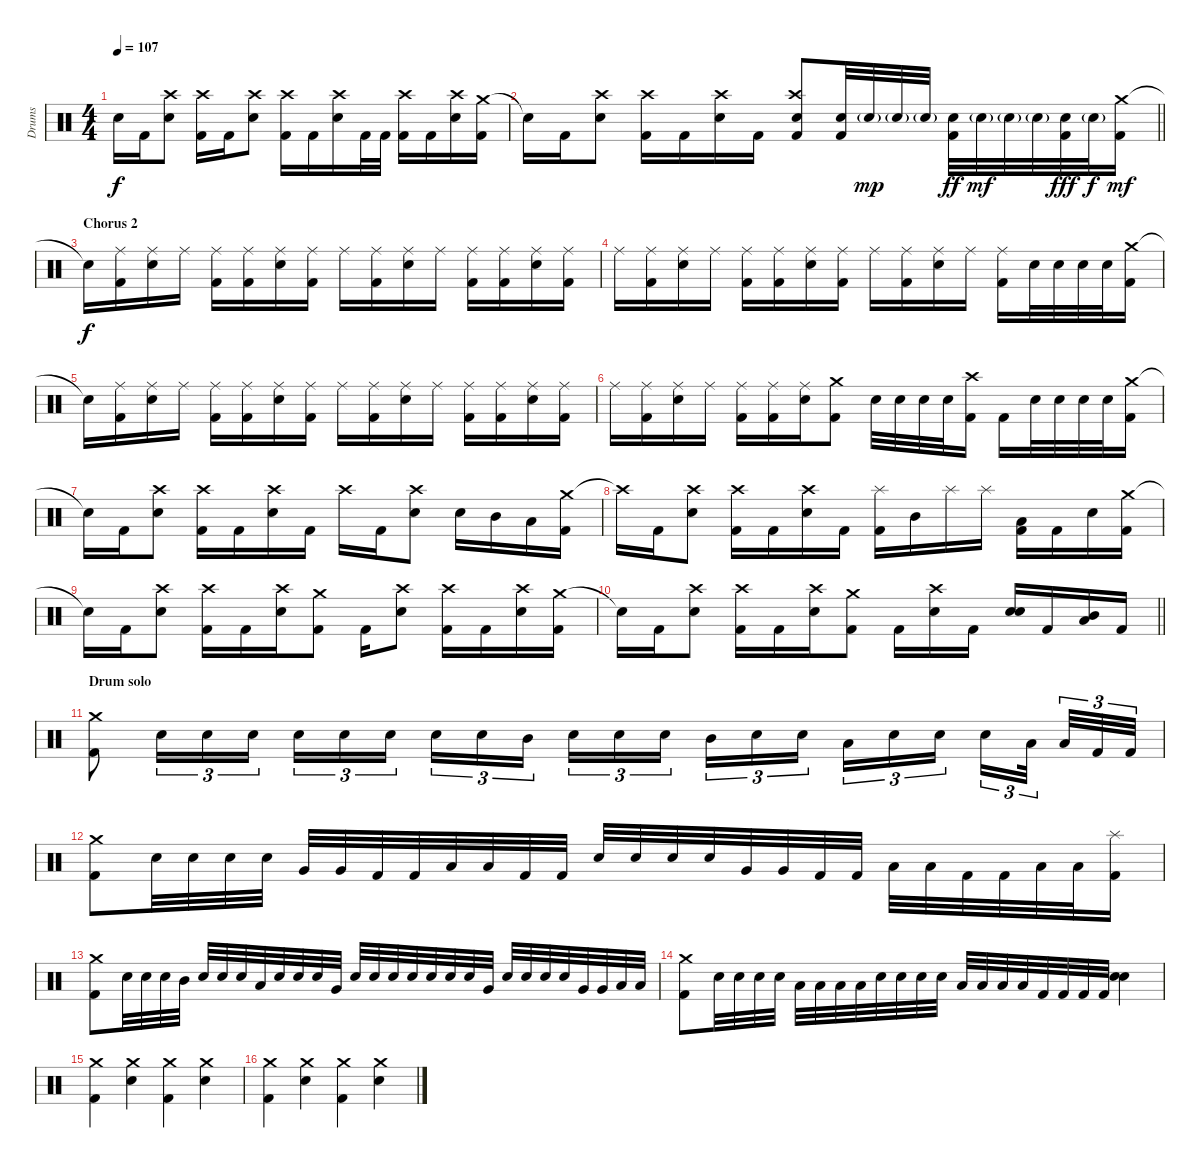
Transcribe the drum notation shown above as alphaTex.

\track ("Drums" "Drums") {instrument percussion}
\staff {score}
\articulation defaults
\ts (4 4)
\tempo 107
\clef neutral
\ks c "Snare (hit)"{t}.16{dy f} "Kick (hit) 2".16
("Crash high (hit)" "Electric Snare (hit)").8 ("Crash high (hit)" "Kick (hit) 2").16 "Kick (hit) 2".16 ("Crash high (hit)" "Electric Snare (hit)").8 ("Crash high (hit)" "Kick (hit) 2").16 "Kick (hit) 2".16 ("Crash high (hit)" "Electric Snare (hit)").16 "Kick (hit) 2".32 "Kick (hit) 2".32 ("Crash high (hit)" "Kick (hit) 2").16 "Kick (hit) 2".16 ("Crash high (hit)" "Electric Snare (hit)").16 ("Crash medium (hit)" "Kick (hit) 2").16 |
\barLineRight lightlight "Snare (hit)"{t}.16 "Kick (hit) 2".16
("Crash high (hit)" "Electric Snare (hit)").8 ("Crash high (hit)" "Kick (hit) 2").16 "Kick (hit) 2".16 ("Crash high (hit)" "Electric Snare (hit)").16 "Kick (hit) 2".16 ("Crash high (hit)" "Electric Snare (hit)" "Kick (hit) 2").8 ("Electric Snare (hit)" "Kick (hit) 2").32 "Electric Snare (hit)"{g}.32{dy mp} "Electric Snare (hit)"{g}.32 "Electric Snare (hit)"{g}.32 ("Electric Snare (hit)" "Kick (hit) 2").32{dy ff} "Electric Snare (hit)"{g}.32{dy mf} "Electric Snare (hit)"{g}.32 "Electric Snare (hit)"{g}.32 ("Electric Snare (hit)" "Kick (hit) 2").32{dy fff} "Electric Snare (hit)"{g}.32{dy f} ("Crash medium (hit)" "Kick (hit) 2").16{dy mf} |
\section ("" "Chorus 2")
"Snare (hit)"{t}.16{dy f} ("Ride (middle)" "Kick (hit) 2").16 ("Ride (middle)" "Electric Snare (hit)").16 "Ride (middle)".16 ("Ride (middle)" "Kick (hit) 2").16 ("Ride (middle)" "Kick (hit) 2").16 ("Ride (middle)" "Electric Snare (hit)").16 ("Ride (middle)" "Kick (hit) 2").16 "Ride (middle)".16 ("Ride (middle)" "Kick (hit) 2").16 ("Ride (middle)" "Electric Snare (hit)").16 "Ride (middle)".16 ("Ride (middle)" "Kick (hit) 2").16 ("Ride (middle)" "Kick (hit) 2").16 ("Ride (middle)" "Electric Snare (hit)").16 ("Ride (middle)" "Kick (hit) 2").16 |
"Ride (middle)".16 ("Ride (middle)" "Kick (hit) 2").16 ("Ride (middle)" "Electric Snare (hit)").16 "Ride (middle)".16 ("Ride (middle)" "Kick (hit) 2").16 ("Ride (middle)" "Kick (hit) 2").16 ("Ride (middle)" "Electric Snare (hit)").16 ("Ride (middle)" "Kick (hit) 2").16 "Ride (middle)".16 ("Ride (middle)" "Kick (hit) 2").16 ("Ride (middle)" "Electric Snare (hit)").16 "Ride (middle)".16 ("Ride (middle)" "Kick (hit) 2").16 "Electric Snare (hit)".32 "Electric Snare (hit)".32 "Electric Snare (hit)".32 "Electric Snare (hit)".32 ("Crash medium (hit)" "Kick (hit) 2").16 |
"Snare (hit)"{t}.16 ("Ride (middle)" "Kick (hit) 2").16 ("Ride (middle)" "Electric Snare (hit)").16 "Ride (middle)".16 ("Ride (middle)" "Kick (hit) 2").16 ("Ride (middle)" "Kick (hit) 2").16 ("Ride (middle)" "Electric Snare (hit)").16 ("Ride (middle)" "Kick (hit) 2").16 "Ride (middle)".16 ("Ride (middle)" "Kick (hit) 2").16 ("Ride (middle)" "Electric Snare (hit)").16 "Ride (middle)".16 ("Ride (middle)" "Kick (hit) 2").16 ("Ride (middle)" "Kick (hit) 2").16 ("Ride (middle)" "Electric Snare (hit)").16 ("Ride (middle)" "Kick (hit) 2").16 |
"Ride (middle)".16 ("Ride (middle)" "Kick (hit) 2").16 ("Ride (middle)" "Electric Snare (hit)").16 "Ride (middle)".16 ("Ride (middle)" "Kick (hit) 2").16 ("Ride (middle)" "Kick (hit) 2").16 ("Ride (middle)" "Electric Snare (hit)").16 ("Crash medium (hit)" "Kick (hit) 2").8 "Electric Snare (hit)".32 "Electric Snare (hit)".32 "Electric Snare (hit)".32 "Electric Snare (hit)".32 ("Crash high (hit)" "Kick (hit) 2").16 "Kick (hit) 2".16 "Electric Snare (hit)".32 "Electric Snare (hit)".32 "Electric Snare (hit)".32 "Electric Snare (hit)".32 ("Crash medium (hit)" "Kick (hit) 2").16 |
"Snare (hit)"{t}.16 "Kick (hit) 2".16 ("Crash high (hit)" "Electric Snare (hit)").8 ("Crash high (hit)" "Kick (hit) 2").16 "Kick (hit) 2".16 ("Crash high (hit)" "Electric Snare (hit)").16 "Kick (hit) 2".16 "Crash high (hit)".16 "Kick (hit) 2".16 ("Crash high (hit)" "Electric Snare (hit)").8 "Electric Snare (hit)".16 "Mid Tom (hit)".16 "Low Tom (hit)".16 ("Crash medium (hit)" "Kick (hit) 2").16 |
"Crash high (hit)"{t}.16 "Kick (hit) 2".16 ("Crash high (hit)" "Electric Snare (hit)").8 ("Crash high (hit)" "Kick (hit) 2").16 "Kick (hit) 2".16 ("Crash high (hit)" "Electric Snare (hit)").16 "Kick (hit) 2".16 ("Splash (hit)" "Kick (hit) 2").16 "Mid Tom (hit)".16 "Splash (hit)".16 "Splash (hit)".16 ("Low Tom (hit)" "Kick (hit) 2").16 "Kick (hit) 2".16 "Electric Snare (hit)".16 ("Crash medium (hit)" "Kick (hit) 2").16 |
"Snare (hit)"{t}.16 "Kick (hit) 2".16 ("Crash high (hit)" "Electric Snare (hit)").8 ("Crash high (hit)" "Kick (hit) 2").16 "Kick (hit) 2".16 ("Crash high (hit)" "Electric Snare (hit)").16 ("Crash medium (hit)" "Kick (hit) 2").8 "Kick (hit) 2".16 ("Crash high (hit)" "Electric Snare (hit)").8 ("Crash high (hit)" "Kick (hit) 2").16 "Kick (hit) 2".16 ("Crash high (hit)" "Electric Snare (hit)").16 ("Crash medium (hit)" "Kick (hit) 2").16 |
\barLineRight lightlight "Snare (hit)"{t}.16 "Kick (hit) 2".16
("Crash high (hit)" "Electric Snare (hit)").8 ("Crash high (hit)" "Kick (hit) 2").16 "Kick (hit) 2".16 ("Crash high (hit)" "Electric Snare (hit)").16 ("Crash medium (hit)" "Kick (hit) 2").8 "Kick (hit) 2".16 ("Crash high (hit)" "Electric Snare (hit)").16 "Kick (hit) 2".16 ("Electric Snare (hit)" "Electric Snare (hit)").16 "Kick (hit) 2".16 ("Mid Tom (hit)" "Low Tom (hit)").16 "Kick (hit) 2".16 |
\section ("" "Drum solo")
("Crash medium (hit)" "Kick (hit) 2").8 "Electric Snare (hit)".16{tu (3 2)} "Electric Snare (hit)".16{tu (3 2)} "Electric Snare (hit)".16{tu (3 2)} "Electric Snare (hit)".16{tu (3 2)} "Electric Snare (hit)".16{tu (3 2)} "Electric Snare (hit)".16{tu (3 2) beam splitsecondary} "Electric Snare (hit)".16{tu (3 2)} "Electric Snare (hit)".16{tu (3 2)} "Mid Tom (hit)".16{tu (3 2)} "Electric Snare (hit)".16{tu (3 2)} "Electric Snare (hit)".16{tu (3 2)} "Electric Snare (hit)".16{tu (3 2) beam splitsecondary} "Mid Tom (hit)".16{tu (3 2)} "Electric Snare (hit)".16{tu (3 2)} "Electric Snare (hit)".16{tu (3 2)} "Low Tom (hit)".16{tu (3 2)} "Electric Snare (hit)".16{tu (3 2)} "Electric Snare (hit)".16{tu (3 2) beam splitsecondary} "Electric Snare (hit)".16{tu (3 2)} "Low Tom (hit)".32{tu (3 2) beam splitsecondary} "Low Tom (hit)".32{tu (3 2)} "Kick (hit) 2".32{tu (3 2)} "Kick (hit) 2".32{tu (3 2)} |
("Crash medium (hit)" "Kick (hit) 2").8 "Electric Snare (hit)".32 "Electric Snare (hit)".32 "Electric Snare (hit)".32 "Electric Snare (hit)".32 "Very Low Tom (hit)".32 "Very Low Tom (hit)".32 "Kick (hit) 2".32 "Kick (hit) 2".32 "Low Floor Tom (hit)".32 "Low Floor Tom (hit)".32 "Kick (hit) 2".32 "Kick (hit) 2".32 "Electric Snare (hit)".32 "Electric Snare (hit)".32 "Electric Snare (hit)".32 "Electric Snare (hit)".32 "Very Low Tom (hit)".32 "Very Low Tom (hit)".32 "Kick (hit) 2".32 "Kick (hit) 2".32 "Low Floor Tom (hit)".32 "Low Floor Tom (hit)".32 "Kick (hit) 2".32 "Kick (hit) 2".32 "Low Floor Tom (hit)".32 "Low Floor Tom (hit)".32 ("Splash (hit)" "Kick (hit) 2").16 |
("Crash medium (hit)" "Kick (hit) 2").8 "Electric Snare (hit)".32 "Electric Snare (hit)".32 "Electric Snare (hit)".32 "Mid Tom (hit)".32 "Electric Snare (hit)".32 "Electric Snare (hit)".32 "Electric Snare (hit)".32 "Low Tom (hit)".32 "Electric Snare (hit)".32 "Electric Snare (hit)".32 "Electric Snare (hit)".32 "Very Low Tom (hit)".32 "Electric Snare (hit)".32 "Electric Snare (hit)".32 "Electric Snare (hit)".32 "Electric Snare (hit)".32 "Electric Snare (hit)".32 "Electric Snare (hit)".32 "Electric Snare (hit)".32 "Very Low Tom (hit)".32 "Electric Snare (hit)".32 "Electric Snare (hit)".32 "Electric Snare (hit)".32 "Electric Snare (hit)".32 "Very Low Tom (hit)".32 "Very Low Tom (hit)".32 "Low Floor Tom (hit)".32 "Low Floor Tom (hit)".32 |
("Crash medium (hit)" "Kick (hit) 2").8 "Electric Snare (hit)".32 "Electric Snare (hit)".32 "Electric Snare (hit)".32 "Electric Snare (hit)".32 "Low Floor Tom (hit)".32 "Low Floor Tom (hit)".32 "Low Floor Tom (hit)".32 "Low Floor Tom (hit)".32 "Electric Snare (hit)".32 "Electric Snare (hit)".32 "Electric Snare (hit)".32 "Electric Snare (hit)".32 "Low Floor Tom (hit)".32 "Low Floor Tom (hit)".32 "Low Floor Tom (hit)".32 "Low Floor Tom (hit)".32 "Kick (hit) 2".32 "Kick (hit) 2".32 "Kick (hit) 2".32 "Kick (hit) 2".32 ("Electric Snare (hit)" "Electric Snare (hit)").4 |
("Crash medium (hit)" "Kick (hit) 2").4 ("Crash medium (hit)" "Electric Snare (hit)").4 ("Crash medium (hit)" "Kick (hit) 2").4 ("Crash medium (hit)" "Electric Snare (hit)").4 |
("Crash medium (hit)" "Kick (hit) 2").4 ("Crash medium (hit)" "Electric Snare (hit)").4 ("Crash medium (hit)" "Kick (hit) 2").4 ("Crash medium (hit)" "Electric Snare (hit)").4
